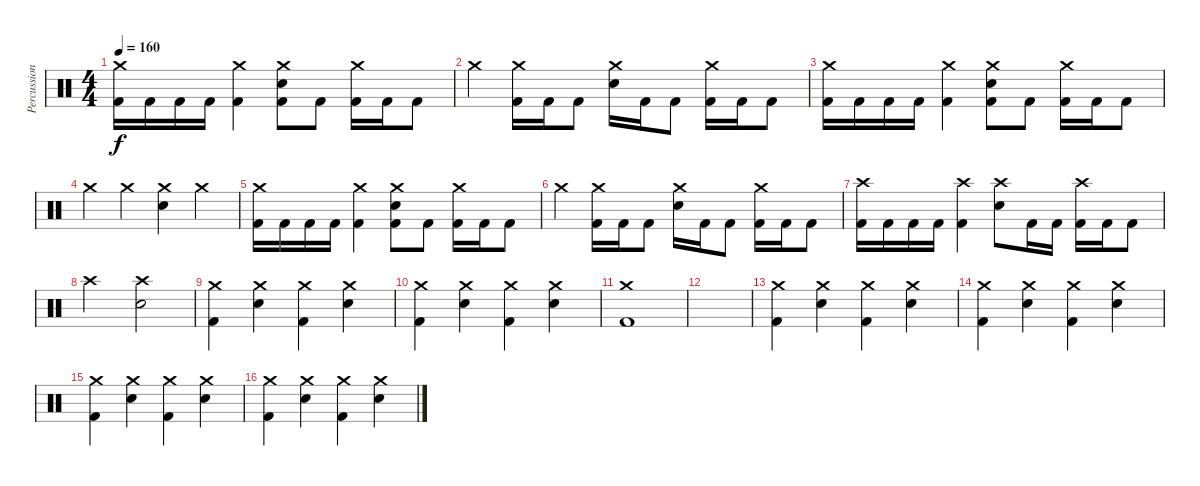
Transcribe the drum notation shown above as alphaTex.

\track ("Percussion" "Percussion") {instrument percussion}
\staff {score}
\articulation defaults
\ts (4 4)
\tempo 160
\clef neutral
\ks c
("Crash medium (hit)" "Kick (hit) 2").16{dy f} "Kick (hit) 2".16 "Kick (hit) 2".16 "Kick (hit) 2".16 ("Crash medium (hit)" "Kick (hit) 2").4 ("Crash medium (hit)" "Electric Snare (hit)" "Kick (hit) 2").8 "Kick (hit) 2".8 ("Crash medium (hit)" "Kick (hit) 2").16 "Kick (hit) 2".16 "Kick (hit) 2".8 |
"Crash medium (hit)".4 ("Crash medium (hit)" "Kick (hit) 2").16 "Kick (hit) 2".16 "Kick (hit) 2".8 ("Crash medium (hit)" "Electric Snare (hit)").16 "Kick (hit) 2".16 "Kick (hit) 2".8 ("Crash medium (hit)" "Kick (hit) 2").16 "Kick (hit) 2".16 "Kick (hit) 2".8 |
("Crash medium (hit)" "Kick (hit) 2").16 "Kick (hit) 2".16 "Kick (hit) 2".16 "Kick (hit) 2".16 ("Crash medium (hit)" "Kick (hit) 2").4 ("Crash medium (hit)" "Electric Snare (hit)" "Kick (hit) 2").8 "Kick (hit) 2".8 ("Crash medium (hit)" "Kick (hit) 2").16 "Kick (hit) 2".16 "Kick (hit) 2".8 |
"Crash medium (hit)".4 "Crash medium (hit)".4 ("Crash medium (hit)" "Electric Snare (hit)").4 "Crash medium (hit)".4 |
("Crash medium (hit)" "Kick (hit) 2").16 "Kick (hit) 2".16 "Kick (hit) 2".16 "Kick (hit) 2".16 ("Crash medium (hit)" "Kick (hit) 2").4 ("Crash medium (hit)" "Electric Snare (hit)" "Kick (hit) 2").8 "Kick (hit) 2".8 ("Crash medium (hit)" "Kick (hit) 2").16 "Kick (hit) 2".16 "Kick (hit) 2".8 |
"Crash medium (hit)".4 ("Crash medium (hit)" "Kick (hit) 2").16 "Kick (hit) 2".16 "Kick (hit) 2".8 ("Crash medium (hit)" "Electric Snare (hit)").16 "Kick (hit) 2".16 "Kick (hit) 2".8 ("Crash medium (hit)" "Kick (hit) 2").16 "Kick (hit) 2".16 "Kick (hit) 2".8 |
("Crash high (hit)" "Kick (hit) 2").16 "Kick (hit) 2".16 "Kick (hit) 2".16 "Kick (hit) 2".16 ("Crash high (hit)" "Kick (hit) 2").4 ("Crash high (hit)" "Electric Snare (hit)").8 "Kick (hit) 2".16 "Kick (hit) 2".16 ("Crash high (hit)" "Kick (hit) 2").16 "Kick (hit) 2".16 "Kick (hit) 2".8 |
"Crash high (hit)".2 ("Crash high (hit)" "Electric Snare (hit)").2 |
("Crash medium (hit)" "Kick (hit) 2").4 ("Crash medium (hit)" "Electric Snare (hit)").4 ("Crash medium (hit)" "Kick (hit) 2").4 ("Crash medium (hit)" "Electric Snare (hit)").4 |
("Crash medium (hit)" "Kick (hit) 2").4 ("Crash medium (hit)" "Electric Snare (hit)").4 ("Crash medium (hit)" "Kick (hit) 2").4 ("Crash medium (hit)" "Electric Snare (hit)").4 |
("Crash medium (hit)" "Kick (hit) 2").1 |
|
("Crash medium (hit)" "Kick (hit) 2").4 ("Crash medium (hit)" "Electric Snare (hit)").4 ("Crash medium (hit)" "Kick (hit) 2").4 ("Crash medium (hit)" "Electric Snare (hit)").4 |
("Crash medium (hit)" "Kick (hit) 2").4 ("Crash medium (hit)" "Electric Snare (hit)").4 ("Crash medium (hit)" "Kick (hit) 2").4 ("Crash medium (hit)" "Electric Snare (hit)").4 |
("Crash medium (hit)" "Kick (hit) 2").4 ("Crash medium (hit)" "Electric Snare (hit)").4 ("Crash medium (hit)" "Kick (hit) 2").4 ("Crash medium (hit)" "Electric Snare (hit)").4 |
("Crash medium (hit)" "Kick (hit) 2").4 ("Crash medium (hit)" "Electric Snare (hit)").4 ("Crash medium (hit)" "Kick (hit) 2").4 ("Crash medium (hit)" "Electric Snare (hit)").4
